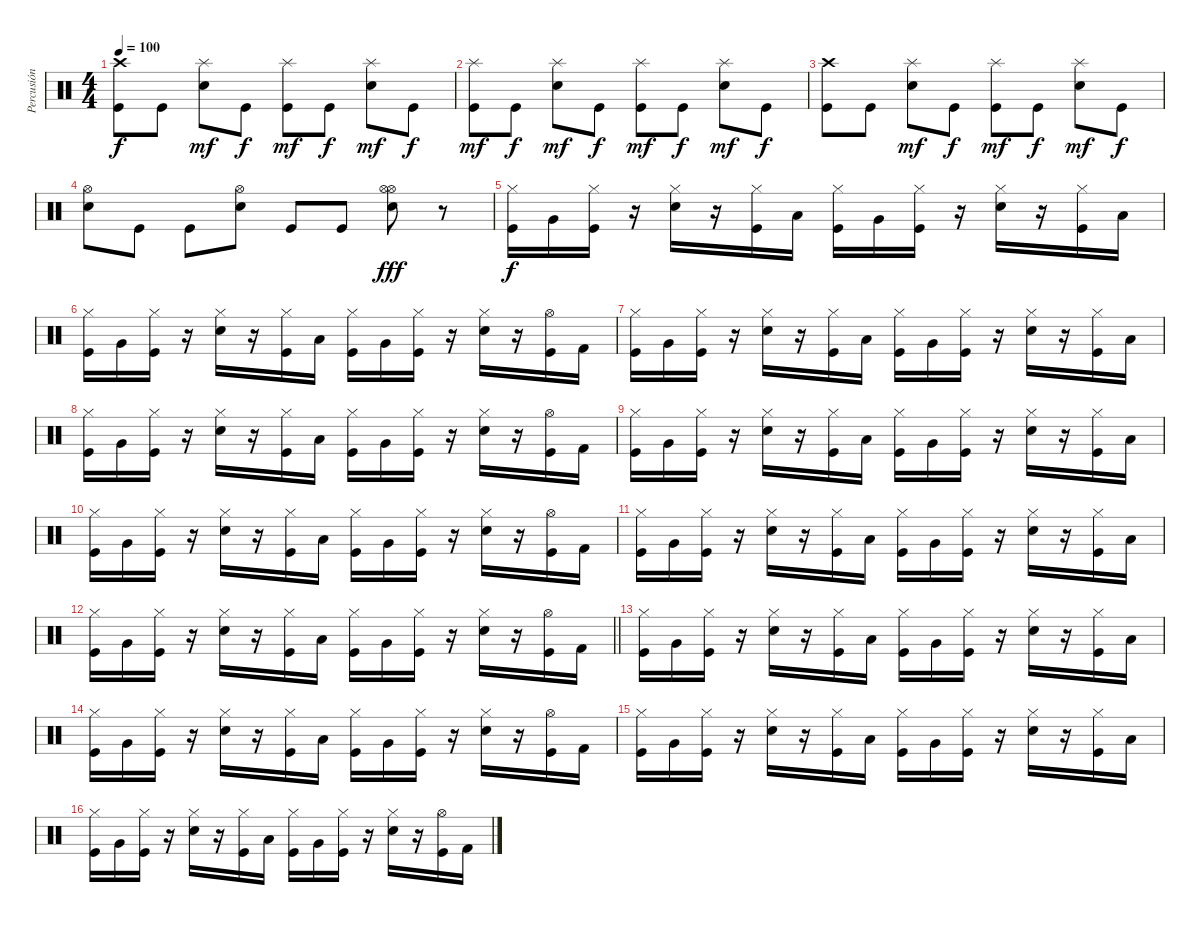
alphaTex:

\track ("Percusión" "Percusión") {instrument percussion}
\staff {score}
\articulation defaults
\ts (4 4)
\tempo 100
\clef neutral
\ks c
("Crash high (hit)" "Kick (hit)").8{dy f} "Kick (hit)".8 ("Splash (hit)" "Electric Snare (hit)").8{dy mf} "Kick (hit)".8{dy f} ("Splash (hit)" "Kick (hit)").8{dy mf} "Kick (hit)".8{dy f} ("Splash (hit)" "Electric Snare (hit)").8{dy mf} "Kick (hit)".8{dy f} |
("Splash (hit)" "Kick (hit)").8{dy mf} "Kick (hit)".8{dy f} ("Splash (hit)" "Electric Snare (hit)").8{dy mf} "Kick (hit)".8{dy f} ("Splash (hit)" "Kick (hit)").8{dy mf} "Kick (hit)".8{dy f} ("Splash (hit)" "Electric Snare (hit)").8{dy mf} "Kick (hit)".8{dy f} |
("Crash high (hit)" "Kick (hit)").8 "Kick (hit)".8 ("Splash (hit)" "Electric Snare (hit)").8{dy mf} "Kick (hit)".8{dy f} ("Splash (hit)" "Kick (hit)").8{dy mf} "Kick (hit)".8{dy f} ("Splash (hit)" "Electric Snare (hit)").8{dy mf} "Kick (hit)".8{dy f} |
("Hi-Hat (open)" "Electric Snare (hit)").8 "Kick (hit)".8 "Kick (hit)".8 ("Hi-Hat (open)" "Electric Snare (hit)").8 "Kick (hit)".8 "Kick (hit)".8 ("Hi-Hat (open)" "Hi-Hat (open)" "Electric Snare (hit)").8{dy fff} r.8 |
("Hi-Hat (closed)" "Kick (hit)").16{dy f} "Very Low Tom (hit)".16 ("Hi-Hat (closed)" "Kick (hit)").16 r.16 ("Hi-Hat (closed)" "Electric Snare (hit)").16 r.16 ("Hi-Hat (closed)" "Kick (hit)").16 "Low Tom (hit)".16 ("Hi-Hat (closed)" "Kick (hit)").16 "Very Low Tom (hit)".16 ("Hi-Hat (closed)" "Kick (hit)").16 r.16 ("Hi-Hat (closed)" "Electric Snare (hit)").16 r.16 ("Hi-Hat (closed)" "Kick (hit)").16 "Low Tom (hit)".16 |
("Hi-Hat (closed)" "Kick (hit)").16 "Very Low Tom (hit)".16 ("Hi-Hat (closed)" "Kick (hit)").16 r.16 ("Hi-Hat (closed)" "Electric Snare (hit)").16 r.16 ("Hi-Hat (closed)" "Kick (hit)").16 "Low Tom (hit)".16 ("Hi-Hat (closed)" "Kick (hit)").16 "Very Low Tom (hit)".16 ("Hi-Hat (closed)" "Kick (hit)").16 r.16 ("Hi-Hat (closed)" "Electric Snare (hit)").16 r.16 ("Hi-Hat (open)" "Kick (hit)").16 "Kick (hit) 2".16 |
("Hi-Hat (closed)" "Kick (hit)").16 "Very Low Tom (hit)".16 ("Hi-Hat (closed)" "Kick (hit)").16 r.16 ("Hi-Hat (closed)" "Electric Snare (hit)").16 r.16 ("Hi-Hat (closed)" "Kick (hit)").16 "Low Tom (hit)".16 ("Hi-Hat (closed)" "Kick (hit)").16 "Very Low Tom (hit)".16 ("Hi-Hat (closed)" "Kick (hit)").16 r.16 ("Hi-Hat (closed)" "Electric Snare (hit)").16 r.16 ("Hi-Hat (closed)" "Kick (hit)").16 "Low Tom (hit)".16 |
("Hi-Hat (closed)" "Kick (hit)").16 "Very Low Tom (hit)".16 ("Hi-Hat (closed)" "Kick (hit)").16 r.16 ("Hi-Hat (closed)" "Electric Snare (hit)").16 r.16 ("Hi-Hat (closed)" "Kick (hit)").16 "Low Tom (hit)".16 ("Hi-Hat (closed)" "Kick (hit)").16 "Very Low Tom (hit)".16 ("Hi-Hat (closed)" "Kick (hit)").16 r.16 ("Hi-Hat (closed)" "Electric Snare (hit)").16 r.16 ("Hi-Hat (open)" "Kick (hit)").16 "Kick (hit) 2".16 |
("Hi-Hat (closed)" "Kick (hit)").16 "Very Low Tom (hit)".16 ("Hi-Hat (closed)" "Kick (hit)").16 r.16 ("Hi-Hat (closed)" "Electric Snare (hit)").16 r.16 ("Hi-Hat (closed)" "Kick (hit)").16 "Low Tom (hit)".16 ("Hi-Hat (closed)" "Kick (hit)").16 "Very Low Tom (hit)".16 ("Hi-Hat (closed)" "Kick (hit)").16 r.16 ("Hi-Hat (closed)" "Electric Snare (hit)").16 r.16 ("Hi-Hat (closed)" "Kick (hit)").16 "Low Tom (hit)".16 |
("Hi-Hat (closed)" "Kick (hit)").16 "Very Low Tom (hit)".16 ("Hi-Hat (closed)" "Kick (hit)").16 r.16 ("Hi-Hat (closed)" "Electric Snare (hit)").16 r.16 ("Hi-Hat (closed)" "Kick (hit)").16 "Low Tom (hit)".16 ("Hi-Hat (closed)" "Kick (hit)").16 "Very Low Tom (hit)".16 ("Hi-Hat (closed)" "Kick (hit)").16 r.16 ("Hi-Hat (closed)" "Electric Snare (hit)").16 r.16 ("Hi-Hat (open)" "Kick (hit)").16 "Kick (hit) 2".16 |
("Hi-Hat (closed)" "Kick (hit)").16 "Very Low Tom (hit)".16 ("Hi-Hat (closed)" "Kick (hit)").16 r.16 ("Hi-Hat (closed)" "Electric Snare (hit)").16 r.16 ("Hi-Hat (closed)" "Kick (hit)").16 "Low Tom (hit)".16 ("Hi-Hat (closed)" "Kick (hit)").16 "Very Low Tom (hit)".16 ("Hi-Hat (closed)" "Kick (hit)").16 r.16 ("Hi-Hat (closed)" "Electric Snare (hit)").16 r.16 ("Hi-Hat (closed)" "Kick (hit)").16 "Low Tom (hit)".16 |
\barLineRight lightlight
("Hi-Hat (closed)" "Kick (hit)").16 "Very Low Tom (hit)".16 ("Hi-Hat (closed)" "Kick (hit)").16 r.16 ("Hi-Hat (closed)" "Electric Snare (hit)").16 r.16 ("Hi-Hat (closed)" "Kick (hit)").16 "Low Tom (hit)".16 ("Hi-Hat (closed)" "Kick (hit)").16 "Very Low Tom (hit)".16 ("Hi-Hat (closed)" "Kick (hit)").16 r.16 ("Hi-Hat (closed)" "Electric Snare (hit)").16 r.16 ("Hi-Hat (open)" "Kick (hit)").16 "Kick (hit) 2".16 |
("Hi-Hat (closed)" "Kick (hit)").16 "Very Low Tom (hit)".16 ("Hi-Hat (closed)" "Kick (hit)").16 r.16 ("Hi-Hat (closed)" "Electric Snare (hit)").16 r.16 ("Hi-Hat (closed)" "Kick (hit)").16 "Low Tom (hit)".16 ("Hi-Hat (closed)" "Kick (hit)").16 "Very Low Tom (hit)".16 ("Hi-Hat (closed)" "Kick (hit)").16 r.16 ("Hi-Hat (closed)" "Electric Snare (hit)").16 r.16 ("Hi-Hat (closed)" "Kick (hit)").16 "Low Tom (hit)".16 |
("Hi-Hat (closed)" "Kick (hit)").16 "Very Low Tom (hit)".16 ("Hi-Hat (closed)" "Kick (hit)").16 r.16 ("Hi-Hat (closed)" "Electric Snare (hit)").16 r.16 ("Hi-Hat (closed)" "Kick (hit)").16 "Low Tom (hit)".16 ("Hi-Hat (closed)" "Kick (hit)").16 "Very Low Tom (hit)".16 ("Hi-Hat (closed)" "Kick (hit)").16 r.16 ("Hi-Hat (closed)" "Electric Snare (hit)").16 r.16 ("Hi-Hat (open)" "Kick (hit)").16 "Kick (hit) 2".16 |
("Hi-Hat (closed)" "Kick (hit)").16 "Very Low Tom (hit)".16 ("Hi-Hat (closed)" "Kick (hit)").16 r.16 ("Hi-Hat (closed)" "Electric Snare (hit)").16 r.16 ("Hi-Hat (closed)" "Kick (hit)").16 "Low Tom (hit)".16 ("Hi-Hat (closed)" "Kick (hit)").16 "Very Low Tom (hit)".16 ("Hi-Hat (closed)" "Kick (hit)").16 r.16 ("Hi-Hat (closed)" "Electric Snare (hit)").16 r.16 ("Hi-Hat (closed)" "Kick (hit)").16 "Low Tom (hit)".16 |
("Hi-Hat (closed)" "Kick (hit)").16 "Very Low Tom (hit)".16 ("Hi-Hat (closed)" "Kick (hit)").16 r.16 ("Hi-Hat (closed)" "Electric Snare (hit)").16 r.16 ("Hi-Hat (closed)" "Kick (hit)").16 "Low Tom (hit)".16 ("Hi-Hat (closed)" "Kick (hit)").16 "Very Low Tom (hit)".16 ("Hi-Hat (closed)" "Kick (hit)").16 r.16 ("Hi-Hat (closed)" "Electric Snare (hit)").16 r.16 ("Hi-Hat (open)" "Kick (hit)").16 "Kick (hit) 2".16
